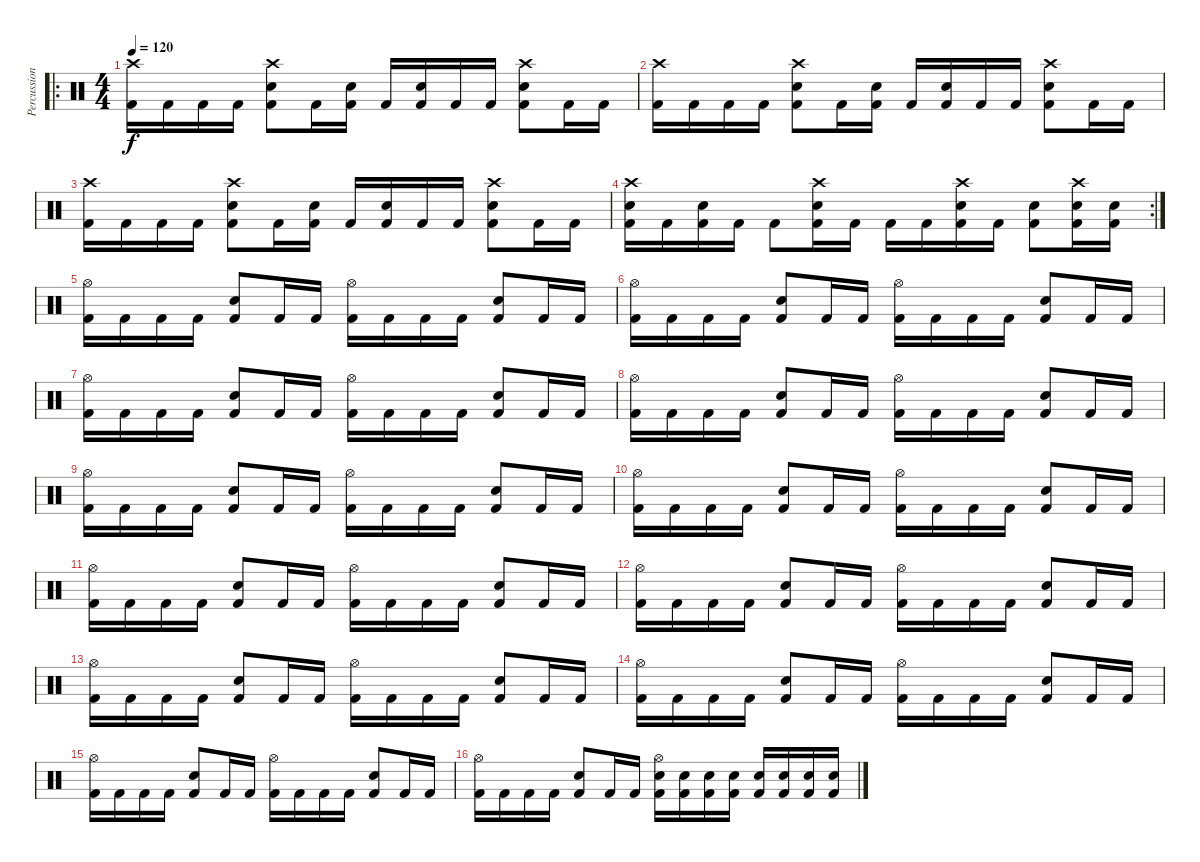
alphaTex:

\track ("Percussion - Ryan Vikedal" "Percussion") {instrument percussion}
\staff {score}
\articulation defaults
\ro
\ts (4 4)
\tempo 120
\clef neutral
\ks c
("Crash high (hit)" "Kick (hit) 2").16{dy f} "Kick (hit) 2".16 "Kick (hit) 2".16 "Kick (hit) 2".16 ("Crash high (hit)" "Snare (hit) 2" "Kick (hit) 2").8 "Kick (hit) 2".16 ("Snare (hit) 2" "Kick (hit) 2").16 "Kick (hit) 2".16 ("Snare (hit) 2" "Kick (hit) 2").16 "Kick (hit) 2".16 "Kick (hit) 2".16 ("Crash high (hit)" "Snare (hit) 2" "Kick (hit) 2").8 "Kick (hit) 2".16 "Kick (hit) 2".16 |
("Crash high (hit)" "Kick (hit) 2").16 "Kick (hit) 2".16 "Kick (hit) 2".16 "Kick (hit) 2".16 ("Crash high (hit)" "Snare (hit) 2" "Kick (hit) 2").8 "Kick (hit) 2".16 ("Snare (hit) 2" "Kick (hit) 2").16 "Kick (hit) 2".16 ("Snare (hit) 2" "Kick (hit) 2").16 "Kick (hit) 2".16 "Kick (hit) 2".16 ("Crash high (hit)" "Snare (hit) 2" "Kick (hit) 2").8 "Kick (hit) 2".16 "Kick (hit) 2".16 |
("Crash high (hit)" "Kick (hit) 2").16 "Kick (hit) 2".16 "Kick (hit) 2".16 "Kick (hit) 2".16 ("Crash high (hit)" "Snare (hit) 2" "Kick (hit) 2").8 "Kick (hit) 2".16 ("Snare (hit) 2" "Kick (hit) 2").16 "Kick (hit) 2".16 ("Snare (hit) 2" "Kick (hit) 2").16 "Kick (hit) 2".16 "Kick (hit) 2".16 ("Crash high (hit)" "Snare (hit) 2" "Kick (hit) 2").8 "Kick (hit) 2".16 "Kick (hit) 2".16 |
\rc 2
("Crash high (hit)" "Snare (hit) 2" "Kick (hit) 2").16 "Kick (hit) 2".16 ("Snare (hit) 2" "Kick (hit) 2").16 "Kick (hit) 2".16 "Kick (hit) 2".8 ("Crash high (hit)" "Snare (hit) 2" "Kick (hit) 2").16 "Kick (hit) 2".16 "Kick (hit) 2".16 "Kick (hit) 2".16 ("Crash high (hit)" "Snare (hit) 2" "Kick (hit) 2").16 "Kick (hit) 2".16 ("Snare (hit) 2" "Kick (hit) 2").8 ("Crash high (hit)" "Snare (hit) 2" "Kick (hit) 2").16 ("Snare (hit) 2" "Kick (hit) 2").16 |
("Hi-Hat (open)" "Kick (hit) 2").16 "Kick (hit) 2".16 "Kick (hit) 2".16 "Kick (hit) 2".16 ("Snare (hit) 2" "Kick (hit) 2").8 "Kick (hit) 2".16 "Kick (hit) 2".16 ("Hi-Hat (open)" "Kick (hit) 2").16 "Kick (hit) 2".16 "Kick (hit) 2".16 "Kick (hit) 2".16 ("Snare (hit) 2" "Kick (hit) 2").8 "Kick (hit) 2".16 "Kick (hit) 2".16 |
("Hi-Hat (open)" "Kick (hit) 2").16 "Kick (hit) 2".16 "Kick (hit) 2".16 "Kick (hit) 2".16 ("Snare (hit) 2" "Kick (hit) 2").8 "Kick (hit) 2".16 "Kick (hit) 2".16 ("Hi-Hat (open)" "Kick (hit) 2").16 "Kick (hit) 2".16 "Kick (hit) 2".16 "Kick (hit) 2".16 ("Snare (hit) 2" "Kick (hit) 2").8 "Kick (hit) 2".16 "Kick (hit) 2".16 |
("Hi-Hat (open)" "Kick (hit) 2").16 "Kick (hit) 2".16 "Kick (hit) 2".16 "Kick (hit) 2".16 ("Snare (hit) 2" "Kick (hit) 2").8 "Kick (hit) 2".16 "Kick (hit) 2".16 ("Hi-Hat (open)" "Kick (hit) 2").16 "Kick (hit) 2".16 "Kick (hit) 2".16 "Kick (hit) 2".16 ("Snare (hit) 2" "Kick (hit) 2").8 "Kick (hit) 2".16 "Kick (hit) 2".16 |
("Hi-Hat (open)" "Kick (hit) 2").16 "Kick (hit) 2".16 "Kick (hit) 2".16 "Kick (hit) 2".16 ("Snare (hit) 2" "Kick (hit) 2").8 "Kick (hit) 2".16 "Kick (hit) 2".16 ("Hi-Hat (open)" "Kick (hit) 2").16 "Kick (hit) 2".16 "Kick (hit) 2".16 "Kick (hit) 2".16 ("Snare (hit) 2" "Kick (hit) 2").8 "Kick (hit) 2".16 "Kick (hit) 2".16 |
("Hi-Hat (open)" "Kick (hit) 2").16 "Kick (hit) 2".16 "Kick (hit) 2".16 "Kick (hit) 2".16 ("Snare (hit) 2" "Kick (hit) 2").8 "Kick (hit) 2".16 "Kick (hit) 2".16 ("Hi-Hat (open)" "Kick (hit) 2").16 "Kick (hit) 2".16 "Kick (hit) 2".16 "Kick (hit) 2".16 ("Snare (hit) 2" "Kick (hit) 2").8 "Kick (hit) 2".16 "Kick (hit) 2".16 |
("Hi-Hat (open)" "Kick (hit) 2").16 "Kick (hit) 2".16 "Kick (hit) 2".16 "Kick (hit) 2".16 ("Snare (hit) 2" "Kick (hit) 2").8 "Kick (hit) 2".16 "Kick (hit) 2".16 ("Hi-Hat (open)" "Kick (hit) 2").16 "Kick (hit) 2".16 "Kick (hit) 2".16 "Kick (hit) 2".16 ("Snare (hit) 2" "Kick (hit) 2").8 "Kick (hit) 2".16 "Kick (hit) 2".16 |
("Hi-Hat (open)" "Kick (hit) 2").16 "Kick (hit) 2".16 "Kick (hit) 2".16 "Kick (hit) 2".16 ("Snare (hit) 2" "Kick (hit) 2").8 "Kick (hit) 2".16 "Kick (hit) 2".16 ("Hi-Hat (open)" "Kick (hit) 2").16 "Kick (hit) 2".16 "Kick (hit) 2".16 "Kick (hit) 2".16 ("Snare (hit) 2" "Kick (hit) 2").8 "Kick (hit) 2".16 "Kick (hit) 2".16 |
("Hi-Hat (open)" "Kick (hit) 2").16 "Kick (hit) 2".16 "Kick (hit) 2".16 "Kick (hit) 2".16 ("Snare (hit) 2" "Kick (hit) 2").8 "Kick (hit) 2".16 "Kick (hit) 2".16 ("Hi-Hat (open)" "Kick (hit) 2").16 "Kick (hit) 2".16 "Kick (hit) 2".16 "Kick (hit) 2".16 ("Snare (hit) 2" "Kick (hit) 2").8 "Kick (hit) 2".16 "Kick (hit) 2".16 |
("Hi-Hat (open)" "Kick (hit) 2").16 "Kick (hit) 2".16 "Kick (hit) 2".16 "Kick (hit) 2".16 ("Snare (hit) 2" "Kick (hit) 2").8 "Kick (hit) 2".16 "Kick (hit) 2".16 ("Hi-Hat (open)" "Kick (hit) 2").16 "Kick (hit) 2".16 "Kick (hit) 2".16 "Kick (hit) 2".16 ("Snare (hit) 2" "Kick (hit) 2").8 "Kick (hit) 2".16 "Kick (hit) 2".16 |
("Hi-Hat (open)" "Kick (hit) 2").16 "Kick (hit) 2".16 "Kick (hit) 2".16 "Kick (hit) 2".16 ("Snare (hit) 2" "Kick (hit) 2").8 "Kick (hit) 2".16 "Kick (hit) 2".16 ("Hi-Hat (open)" "Kick (hit) 2").16 "Kick (hit) 2".16 "Kick (hit) 2".16 "Kick (hit) 2".16 ("Snare (hit) 2" "Kick (hit) 2").8 "Kick (hit) 2".16 "Kick (hit) 2".16 |
("Hi-Hat (open)" "Kick (hit) 2").16 "Kick (hit) 2".16 "Kick (hit) 2".16 "Kick (hit) 2".16 ("Snare (hit) 2" "Kick (hit) 2").8 "Kick (hit) 2".16 "Kick (hit) 2".16 ("Hi-Hat (open)" "Kick (hit) 2").16 "Kick (hit) 2".16 "Kick (hit) 2".16 "Kick (hit) 2".16 ("Snare (hit) 2" "Kick (hit) 2").8 "Kick (hit) 2".16 "Kick (hit) 2".16 |
("Hi-Hat (open)" "Kick (hit) 2").16 "Kick (hit) 2".16 "Kick (hit) 2".16 "Kick (hit) 2".16 ("Snare (hit) 2" "Kick (hit) 2").8 "Kick (hit) 2".16 "Kick (hit) 2".16 ("Hi-Hat (open)" "Snare (hit) 2" "Kick (hit) 2").16 ("Snare (hit) 2" "Kick (hit) 2").16 ("Snare (hit) 2" "Kick (hit) 2").16 ("Snare (hit) 2" "Kick (hit) 2").16 ("Snare (hit) 2" "Kick (hit) 2").16 ("Snare (hit) 2" "Kick (hit) 2").16 ("Snare (hit) 2" "Kick (hit) 2").16 ("Snare (hit) 2" "Kick (hit) 2").16
